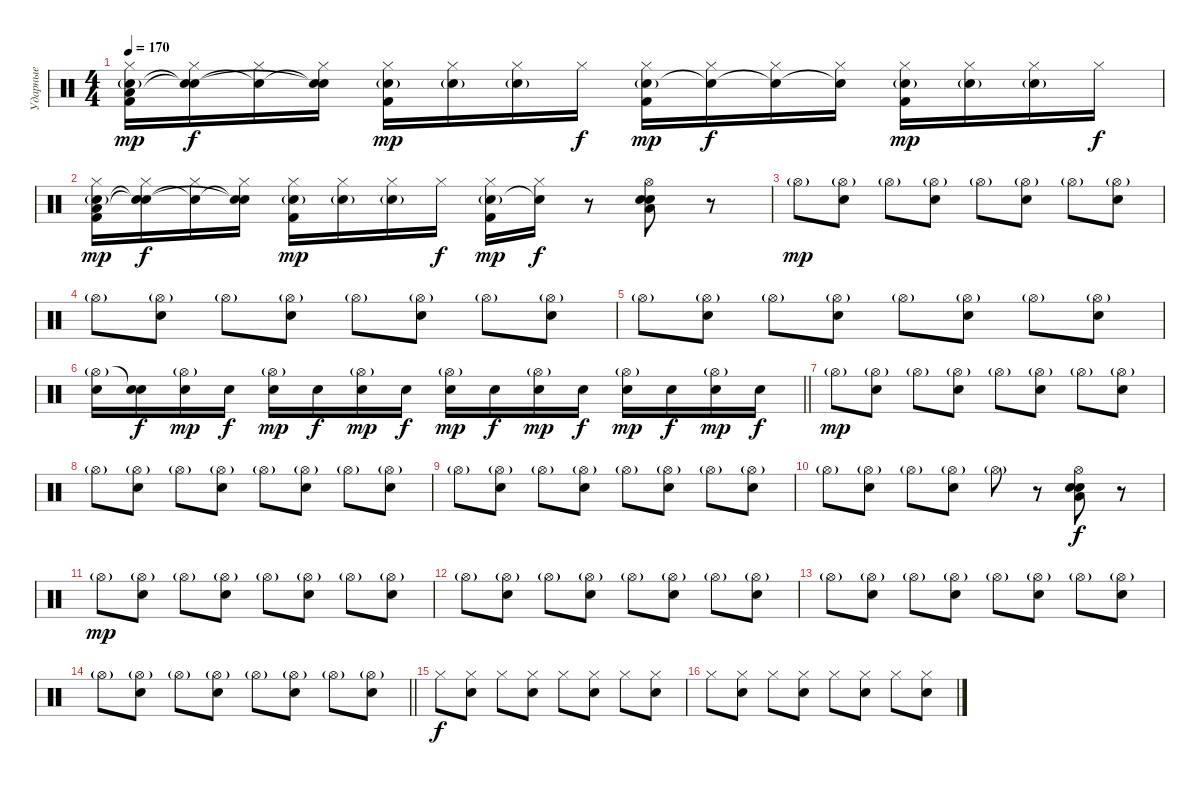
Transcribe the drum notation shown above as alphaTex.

\track ("Ударные" "Ударные") {instrument percussion}
\staff {score}
\articulation defaults
\ts (4 4)
\tempo 170
\clef neutral
\ks c
("Hi-Hat (closed)" "Low Tom (hit)" "Snare (hit) 2"{g} "Kick (hit) 2").16{dy mp} ("Hi-Hat (closed)" "Snare (hit)"{t} "Snare (hit)"{t}).16{dy f} ("Hi-Hat (closed)" "Snare (hit)"{t}).16 ("Hi-Hat (closed)" "Snare (hit) 2"{t} "Snare (hit)"{t}).16 ("Hi-Hat (closed)" "Snare (hit) 2"{g} "Kick (hit) 2").16{dy mp} ("Hi-Hat (closed)" "Snare (hit) 2"{g}).16 ("Hi-Hat (closed)" "Snare (hit) 2"{g}).16 "Hi-Hat (closed)".16{dy f} ("Hi-Hat (closed)" "Snare (hit) 2"{g} "Kick (hit) 2").16{dy mp} ("Hi-Hat (closed)" "Snare (hit) 2"{t}).16{dy f} ("Hi-Hat (closed)" "Snare (hit) 2"{t}).16 ("Hi-Hat (closed)" "Snare (hit) 2"{t}).16 ("Hi-Hat (closed)" "Snare (hit) 2"{g} "Kick (hit) 2").16{dy mp} ("Hi-Hat (closed)" "Snare (hit) 2"{g}).16 ("Hi-Hat (closed)" "Snare (hit) 2"{g}).16 "Hi-Hat (closed)".16{dy f} |
("Hi-Hat (closed)" "Low Tom (hit)" "Snare (hit) 2"{g} "Kick (hit) 2").16{dy mp} ("Hi-Hat (closed)" "Snare (hit)"{t} "Snare (hit)"{t}).16{dy f} ("Hi-Hat (closed)" "Snare (hit)"{t}).16 ("Hi-Hat (closed)" "Snare (hit) 2"{t} "Snare (hit)"{t}).16 ("Hi-Hat (closed)" "Snare (hit) 2"{g} "Kick (hit) 2").16{dy mp} ("Hi-Hat (closed)" "Snare (hit) 2"{g}).16 ("Hi-Hat (closed)" "Snare (hit) 2"{g}).16 "Hi-Hat (closed)".16{dy f} ("Hi-Hat (closed)" "Snare (hit) 2"{g} "Kick (hit) 2").16{dy mp} ("Hi-Hat (closed)" "Snare (hit) 2"{t}).16{dy f} r.8 ("Snare (hit) 2" "Snare (hit) 2" "Low Tom (hit)" "Hi-Hat (open)").8 r.8 |
"Hi-Hat (open)"{g}.8{dy mp} ("Hi-Hat (open)"{g} "Snare (hit) 2").8 "Hi-Hat (open)"{g}.8 ("Hi-Hat (open)"{g} "Snare (hit) 2").8 "Hi-Hat (open)"{g}.8 ("Hi-Hat (open)"{g} "Snare (hit) 2").8 "Hi-Hat (open)"{g}.8 ("Hi-Hat (open)"{g} "Snare (hit) 2").8 |
"Hi-Hat (open)"{g}.8 ("Hi-Hat (open)"{g} "Snare (hit) 2").8 "Hi-Hat (open)"{g}.8 ("Hi-Hat (open)"{g} "Snare (hit) 2").8 "Hi-Hat (open)"{g}.8 ("Hi-Hat (open)"{g} "Snare (hit) 2").8 "Hi-Hat (open)"{g}.8 ("Hi-Hat (open)"{g} "Snare (hit) 2").8 |
"Hi-Hat (open)"{g}.8 ("Hi-Hat (open)"{g} "Snare (hit) 2").8 "Hi-Hat (open)"{g}.8 ("Hi-Hat (open)"{g} "Snare (hit) 2").8 "Hi-Hat (open)"{g}.8 ("Hi-Hat (open)"{g} "Snare (hit) 2").8 "Hi-Hat (open)"{g}.8 ("Hi-Hat (open)"{g} "Snare (hit) 2").8 |
\barLineRight lightlight
("Snare (hit) 2" "Hi-Hat (open)"{g}).16 ("Snare (hit) 2" "Snare (hit)"{t}).16{dy f} ("Snare (hit) 2" "Hi-Hat (open)"{g}).16{dy mp} "Snare (hit) 2".16{dy f} ("Snare (hit) 2" "Hi-Hat (open)"{g}).16{dy mp} "Snare (hit) 2".16{dy f} ("Snare (hit) 2" "Hi-Hat (open)"{g}).16{dy mp} "Snare (hit) 2".16{dy f} ("Snare (hit) 2" "Hi-Hat (open)"{g}).16{dy mp} "Snare (hit) 2".16{dy f} ("Snare (hit) 2" "Hi-Hat (open)"{g}).16{dy mp} "Snare (hit) 2".16{dy f} ("Snare (hit) 2" "Hi-Hat (open)"{g}).16{dy mp} "Snare (hit) 2".16{dy f} ("Snare (hit) 2" "Hi-Hat (open)"{g}).16{dy mp} "Snare (hit) 2".16{dy f} |
"Hi-Hat (open)"{g}.8{dy mp} ("Hi-Hat (open)"{g} "Snare (hit) 2").8 "Hi-Hat (open)"{g}.8 ("Hi-Hat (open)"{g} "Snare (hit) 2").8 "Hi-Hat (open)"{g}.8 ("Hi-Hat (open)"{g} "Snare (hit) 2").8 "Hi-Hat (open)"{g}.8 ("Hi-Hat (open)"{g} "Snare (hit) 2").8 |
"Hi-Hat (open)"{g}.8 ("Hi-Hat (open)"{g} "Snare (hit) 2").8 "Hi-Hat (open)"{g}.8 ("Hi-Hat (open)"{g} "Snare (hit) 2").8 "Hi-Hat (open)"{g}.8 ("Hi-Hat (open)"{g} "Snare (hit) 2").8 "Hi-Hat (open)"{g}.8 ("Hi-Hat (open)"{g} "Snare (hit) 2").8 |
"Hi-Hat (open)"{g}.8 ("Hi-Hat (open)"{g} "Snare (hit) 2").8 "Hi-Hat (open)"{g}.8 ("Hi-Hat (open)"{g} "Snare (hit) 2").8 "Hi-Hat (open)"{g}.8 ("Hi-Hat (open)"{g} "Snare (hit) 2").8 "Hi-Hat (open)"{g}.8 ("Hi-Hat (open)"{g} "Snare (hit) 2").8 |
"Hi-Hat (open)"{g}.8 ("Hi-Hat (open)"{g} "Snare (hit) 2").8 "Hi-Hat (open)"{g}.8 ("Hi-Hat (open)"{g} "Snare (hit) 2").8 "Hi-Hat (open)"{g}.8 r.8 ("Snare (hit) 2" "Snare (hit) 2" "Low Tom (hit)" "Hi-Hat (open)").8{dy f} r.8 |
"Hi-Hat (open)"{g}.8{dy mp} ("Hi-Hat (open)"{g} "Snare (hit) 2").8 "Hi-Hat (open)"{g}.8 ("Hi-Hat (open)"{g} "Snare (hit) 2").8 "Hi-Hat (open)"{g}.8 ("Hi-Hat (open)"{g} "Snare (hit) 2").8 "Hi-Hat (open)"{g}.8 ("Hi-Hat (open)"{g} "Snare (hit) 2").8 |
"Hi-Hat (open)"{g}.8 ("Hi-Hat (open)"{g} "Snare (hit) 2").8 "Hi-Hat (open)"{g}.8 ("Hi-Hat (open)"{g} "Snare (hit) 2").8 "Hi-Hat (open)"{g}.8 ("Hi-Hat (open)"{g} "Snare (hit) 2").8 "Hi-Hat (open)"{g}.8 ("Hi-Hat (open)"{g} "Snare (hit) 2").8 |
"Hi-Hat (open)"{g}.8 ("Hi-Hat (open)"{g} "Snare (hit) 2").8 "Hi-Hat (open)"{g}.8 ("Hi-Hat (open)"{g} "Snare (hit) 2").8 "Hi-Hat (open)"{g}.8 ("Hi-Hat (open)"{g} "Snare (hit) 2").8 "Hi-Hat (open)"{g}.8 ("Hi-Hat (open)"{g} "Snare (hit) 2").8 |
\barLineRight lightlight "Hi-Hat (open)"{g}.8
("Hi-Hat (open)"{g} "Snare (hit) 2").8 "Hi-Hat (open)"{g}.8 ("Hi-Hat (open)"{g} "Snare (hit) 2").8 "Hi-Hat (open)"{g}.8 ("Hi-Hat (open)"{g} "Snare (hit) 2").8 "Hi-Hat (open)"{g}.8 ("Hi-Hat (open)"{g} "Snare (hit) 2").8 |
"Hi-Hat (closed)".8{dy f} ("Hi-Hat (closed)" "Snare (hit) 2").8 "Hi-Hat (closed)".8 ("Hi-Hat (closed)" "Snare (hit) 2").8 "Hi-Hat (closed)".8 ("Hi-Hat (closed)" "Snare (hit) 2").8 "Hi-Hat (closed)".8 ("Hi-Hat (closed)" "Snare (hit) 2").8 |
"Hi-Hat (closed)".8 ("Hi-Hat (closed)" "Snare (hit) 2").8 "Hi-Hat (closed)".8 ("Hi-Hat (closed)" "Snare (hit) 2").8 "Hi-Hat (closed)".8 ("Hi-Hat (closed)" "Snare (hit) 2").8 "Hi-Hat (closed)".8 ("Hi-Hat (closed)" "Snare (hit) 2").8
